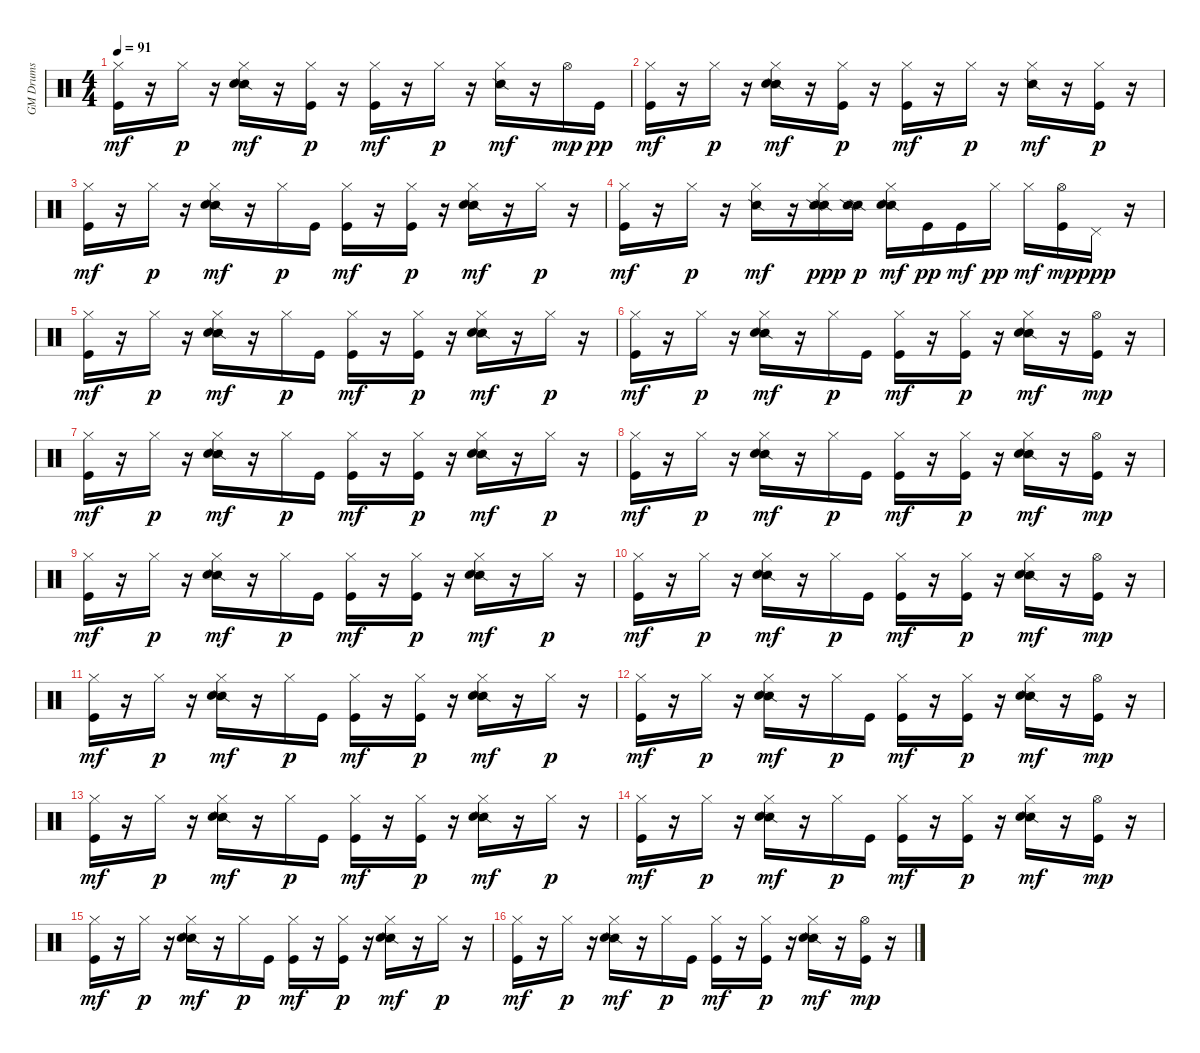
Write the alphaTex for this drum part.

\track ("GM Drums" "GM Drums") {instrument percussion}
\staff {score}
\articulation defaults
\ts (4 4)
\tempo 91
\clef neutral
\ks c
("Kick (hit)" "Hi-Hat (closed)").16{dy mf} r.16 "Hi-Hat (closed)".16{dy p} r.16 ("Snare (side stick) 2" "Electric Snare (hit)" "Hi-Hat (closed)").16{dy mf} r.16 ("Kick (hit)" "Hi-Hat (closed)").16{dy p} r.16 ("Kick (hit)" "Hi-Hat (closed)").16{dy mf} r.16 "Hi-Hat (closed)".16{dy p} r.16 ("Snare (side stick) 2" "Hi-Hat (closed)").16{dy mf} r.16 "Hi-Hat (open)".16{dy mp} "Kick (hit)".16{dy pp} |
("Kick (hit)" "Hi-Hat (closed)").16{dy mf} r.16 "Hi-Hat (closed)".16{dy p} r.16 ("Snare (side stick) 2" "Electric Snare (hit)" "Hi-Hat (closed)").16{dy mf} r.16 ("Kick (hit)" "Hi-Hat (closed)").16{dy p} r.16 ("Kick (hit)" "Hi-Hat (closed)").16{dy mf} r.16 "Hi-Hat (closed)".16{dy p} r.16 ("Snare (side stick) 2" "Hi-Hat (closed)").16{dy mf} r.16 ("Kick (hit)" "Hi-Hat (closed)").16{dy p} r.16 |
("Kick (hit)" "Hi-Hat (closed)").16{dy mf} r.16 "Hi-Hat (closed)".16{dy p} r.16 ("Snare (side stick) 2" "Electric Snare (hit)" "Hi-Hat (closed)").16{dy mf} r.16 "Hi-Hat (closed)".16{dy p} "Kick (hit)".16 ("Kick (hit)" "Hi-Hat (closed)").16{dy mf} r.16 ("Kick (hit)" "Hi-Hat (closed)").16{dy p} r.16 ("Snare (side stick) 2" "Electric Snare (hit)" "Hi-Hat (closed)").16{dy mf} r.16 "Hi-Hat (closed)".16{dy p} r.16 |
("Kick (hit)" "Hi-Hat (closed)").16{dy mf} r.16 "Hi-Hat (closed)".16{dy p} r.16 ("Snare (side stick) 2" "Hi-Hat (closed)").16{dy mf} r.16 ("Snare (side stick) 2" "Hi-Hat (closed)" "Snare (side stick) 2").16{dy ppp} ("Snare (side stick) 2" "Snare (side stick) 2").16{dy p} ("Snare (side stick) 2" "Electric Snare (hit)" "Hi-Hat (closed)").16{dy mf} "Kick (hit)".16{dy pp} "Kick (hit)".16{dy mf} "Hi-Hat (closed)".16{dy pp} "Hi-Hat (closed)".16{dy mf} ("Kick (hit)" "Hi-Hat (open)").16{dy mp} "Pedal Hi-Hat (hit)".16{dy ppp} r.16 |
("Kick (hit)" "Hi-Hat (closed)").16{dy mf} r.16 "Hi-Hat (closed)".16{dy p} r.16 ("Snare (side stick) 2" "Electric Snare (hit)" "Hi-Hat (closed)").16{dy mf} r.16 "Hi-Hat (closed)".16{dy p} "Kick (hit)".16 ("Kick (hit)" "Hi-Hat (closed)").16{dy mf} r.16 ("Kick (hit)" "Hi-Hat (closed)").16{dy p} r.16 ("Snare (side stick) 2" "Electric Snare (hit)" "Hi-Hat (closed)").16{dy mf} r.16 "Hi-Hat (closed)".16{dy p} r.16 |
("Kick (hit)" "Hi-Hat (closed)").16{dy mf} r.16 "Hi-Hat (closed)".16{dy p} r.16 ("Snare (side stick) 2" "Electric Snare (hit)" "Hi-Hat (closed)").16{dy mf} r.16 "Hi-Hat (closed)".16{dy p} "Kick (hit)".16 ("Kick (hit)" "Hi-Hat (closed)").16{dy mf} r.16 ("Kick (hit)" "Hi-Hat (closed)").16{dy p} r.16 ("Snare (side stick) 2" "Electric Snare (hit)" "Hi-Hat (closed)").16{dy mf} r.16 ("Kick (hit)" "Hi-Hat (open)").16{dy mp} r.16 |
("Kick (hit)" "Hi-Hat (closed)").16{dy mf} r.16 "Hi-Hat (closed)".16{dy p} r.16 ("Snare (side stick) 2" "Electric Snare (hit)" "Hi-Hat (closed)").16{dy mf} r.16 "Hi-Hat (closed)".16{dy p} "Kick (hit)".16 ("Kick (hit)" "Hi-Hat (closed)").16{dy mf} r.16 ("Kick (hit)" "Hi-Hat (closed)").16{dy p} r.16 ("Snare (side stick) 2" "Electric Snare (hit)" "Hi-Hat (closed)").16{dy mf} r.16 "Hi-Hat (closed)".16{dy p} r.16 |
("Kick (hit)" "Hi-Hat (closed)").16{dy mf} r.16 "Hi-Hat (closed)".16{dy p} r.16 ("Snare (side stick) 2" "Electric Snare (hit)" "Hi-Hat (closed)").16{dy mf} r.16 "Hi-Hat (closed)".16{dy p} "Kick (hit)".16 ("Kick (hit)" "Hi-Hat (closed)").16{dy mf} r.16 ("Kick (hit)" "Hi-Hat (closed)").16{dy p} r.16 ("Snare (side stick) 2" "Electric Snare (hit)" "Hi-Hat (closed)").16{dy mf} r.16 ("Kick (hit)" "Hi-Hat (open)").16{dy mp} r.16 |
("Kick (hit)" "Hi-Hat (closed)").16{dy mf} r.16 "Hi-Hat (closed)".16{dy p} r.16 ("Snare (side stick) 2" "Electric Snare (hit)" "Hi-Hat (closed)").16{dy mf} r.16 "Hi-Hat (closed)".16{dy p} "Kick (hit)".16 ("Kick (hit)" "Hi-Hat (closed)").16{dy mf} r.16 ("Kick (hit)" "Hi-Hat (closed)").16{dy p} r.16 ("Snare (side stick) 2" "Electric Snare (hit)" "Hi-Hat (closed)").16{dy mf} r.16 "Hi-Hat (closed)".16{dy p} r.16 |
("Kick (hit)" "Hi-Hat (closed)").16{dy mf} r.16 "Hi-Hat (closed)".16{dy p} r.16 ("Snare (side stick) 2" "Electric Snare (hit)" "Hi-Hat (closed)").16{dy mf} r.16 "Hi-Hat (closed)".16{dy p} "Kick (hit)".16 ("Kick (hit)" "Hi-Hat (closed)").16{dy mf} r.16 ("Kick (hit)" "Hi-Hat (closed)").16{dy p} r.16 ("Snare (side stick) 2" "Electric Snare (hit)" "Hi-Hat (closed)").16{dy mf} r.16 ("Kick (hit)" "Hi-Hat (open)").16{dy mp} r.16 |
("Kick (hit)" "Hi-Hat (closed)").16{dy mf} r.16 "Hi-Hat (closed)".16{dy p} r.16 ("Snare (side stick) 2" "Electric Snare (hit)" "Hi-Hat (closed)").16{dy mf} r.16 "Hi-Hat (closed)".16{dy p} "Kick (hit)".16 ("Kick (hit)" "Hi-Hat (closed)").16{dy mf} r.16 ("Kick (hit)" "Hi-Hat (closed)").16{dy p} r.16 ("Snare (side stick) 2" "Electric Snare (hit)" "Hi-Hat (closed)").16{dy mf} r.16 "Hi-Hat (closed)".16{dy p} r.16 |
("Kick (hit)" "Hi-Hat (closed)").16{dy mf} r.16 "Hi-Hat (closed)".16{dy p} r.16 ("Snare (side stick) 2" "Electric Snare (hit)" "Hi-Hat (closed)").16{dy mf} r.16 "Hi-Hat (closed)".16{dy p} "Kick (hit)".16 ("Kick (hit)" "Hi-Hat (closed)").16{dy mf} r.16 ("Kick (hit)" "Hi-Hat (closed)").16{dy p} r.16 ("Snare (side stick) 2" "Electric Snare (hit)" "Hi-Hat (closed)").16{dy mf} r.16 ("Kick (hit)" "Hi-Hat (open)").16{dy mp} r.16 |
("Kick (hit)" "Hi-Hat (closed)").16{dy mf} r.16 "Hi-Hat (closed)".16{dy p} r.16 ("Snare (side stick) 2" "Electric Snare (hit)" "Hi-Hat (closed)").16{dy mf} r.16 "Hi-Hat (closed)".16{dy p} "Kick (hit)".16 ("Kick (hit)" "Hi-Hat (closed)").16{dy mf} r.16 ("Kick (hit)" "Hi-Hat (closed)").16{dy p} r.16 ("Snare (side stick) 2" "Electric Snare (hit)" "Hi-Hat (closed)").16{dy mf} r.16 "Hi-Hat (closed)".16{dy p} r.16 |
("Kick (hit)" "Hi-Hat (closed)").16{dy mf} r.16 "Hi-Hat (closed)".16{dy p} r.16 ("Snare (side stick) 2" "Electric Snare (hit)" "Hi-Hat (closed)").16{dy mf} r.16 "Hi-Hat (closed)".16{dy p} "Kick (hit)".16 ("Kick (hit)" "Hi-Hat (closed)").16{dy mf} r.16 ("Kick (hit)" "Hi-Hat (closed)").16{dy p} r.16 ("Snare (side stick) 2" "Electric Snare (hit)" "Hi-Hat (closed)").16{dy mf} r.16 ("Kick (hit)" "Hi-Hat (open)").16{dy mp} r.16 |
("Kick (hit)" "Hi-Hat (closed)").16{dy mf} r.16 "Hi-Hat (closed)".16{dy p} r.16 ("Snare (side stick) 2" "Electric Snare (hit)" "Hi-Hat (closed)").16{dy mf} r.16 "Hi-Hat (closed)".16{dy p} "Kick (hit)".16 ("Kick (hit)" "Hi-Hat (closed)").16{dy mf} r.16 ("Kick (hit)" "Hi-Hat (closed)").16{dy p} r.16 ("Snare (side stick) 2" "Electric Snare (hit)" "Hi-Hat (closed)").16{dy mf} r.16 "Hi-Hat (closed)".16{dy p} r.16 |
("Kick (hit)" "Hi-Hat (closed)").16{dy mf} r.16 "Hi-Hat (closed)".16{dy p} r.16 ("Snare (side stick) 2" "Electric Snare (hit)" "Hi-Hat (closed)").16{dy mf} r.16 "Hi-Hat (closed)".16{dy p} "Kick (hit)".16 ("Kick (hit)" "Hi-Hat (closed)").16{dy mf} r.16 ("Kick (hit)" "Hi-Hat (closed)").16{dy p} r.16 ("Snare (side stick) 2" "Electric Snare (hit)" "Hi-Hat (closed)").16{dy mf} r.16 ("Kick (hit)" "Hi-Hat (open)").16{dy mp} r.16
